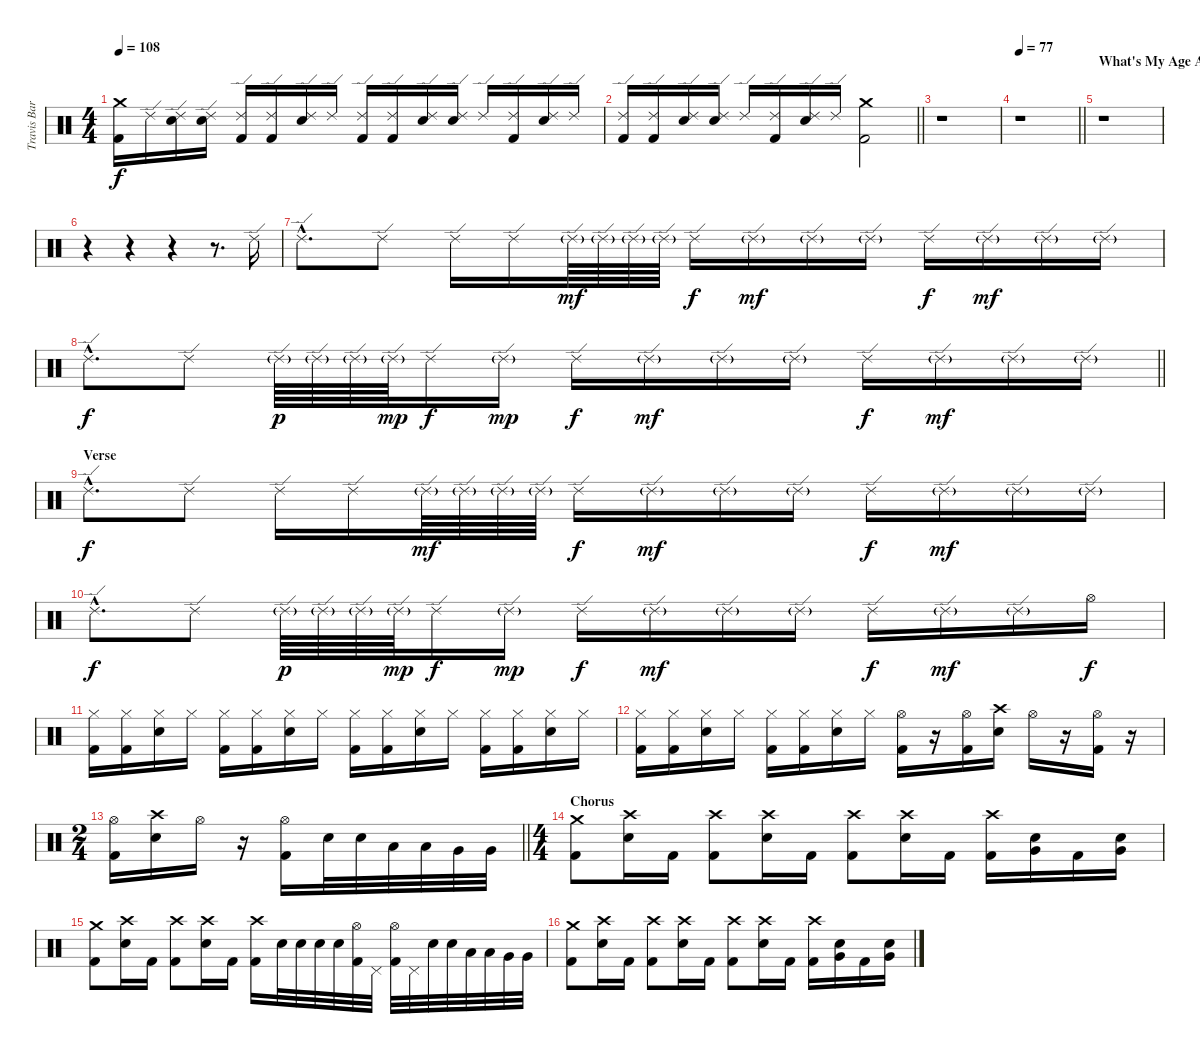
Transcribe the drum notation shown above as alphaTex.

\track ("Travis Barker" "Travis Bar") {instrument percussion}
\staff {score}
\articulation defaults
\ts (4 4)
\tempo 108
\clef neutral
\ks c
("Crash medium (hit)" "Kick (hit) 2").16{dy f} "Ride (edge) 2".16 ("Ride (edge) 2" "Electric Snare (hit)").16 ("Ride (edge) 2" "Electric Snare (hit)").16 ("Ride (edge) 2" "Kick (hit) 2").16 ("Ride (edge) 2" "Kick (hit) 2").16 ("Ride (edge) 2" "Electric Snare (hit)").16 "Ride (edge) 2".16 ("Ride (edge) 2" "Kick (hit) 2").16 ("Ride (edge) 2" "Kick (hit) 2").16 ("Ride (edge) 2" "Electric Snare (hit)").16 ("Ride (edge) 2" "Electric Snare (hit)").16 "Ride (edge) 2".16 ("Ride (edge) 2" "Kick (hit) 2").16 ("Ride (edge) 2" "Electric Snare (hit)").16 "Ride (edge) 2".16 |
\barLineRight lightlight
("Ride (edge) 2" "Kick (hit) 2").16 ("Ride (edge) 2" "Kick (hit) 2").16 ("Ride (edge) 2" "Electric Snare (hit)").16 ("Ride (edge) 2" "Electric Snare (hit)").16 "Ride (edge) 2".16 ("Ride (edge) 2" "Kick (hit) 2").16 ("Ride (edge) 2" "Electric Snare (hit)").16 "Ride (edge) 2".16 ("Crash medium (hit)" "Kick (hit) 2").2 |
r.1 |
\tempo 77
\barLineRight lightlight
r.1 |
\section ("" "What's My Age Again?")
r.1 |
r.4 r.4 r.4 r.8{d} "Ride (edge) 2".16 |
"Ride (edge) 2"{hac}.8{d} "Ride (edge) 2".8 "Ride (edge) 2".16 "Ride (edge) 2".16 "Ride (edge) 2"{g}.64{dy mf} "Ride (edge) 2"{g}.64 "Ride (edge) 2"{g}.64 "Ride (edge) 2"{g}.64 "Ride (edge) 2".16{dy f} "Ride (edge) 2"{g}.16{dy mf} "Ride (edge) 2"{g}.16 "Ride (edge) 2"{g}.16 "Ride (edge) 2".16{dy f} "Ride (edge) 2"{g}.16{dy mf} "Ride (edge) 2"{g}.16 "Ride (edge) 2"{g}.16 |
\barLineRight lightlight "Ride (edge) 2"{hac}.8{d dy f} "Ride (edge) 2".8 "Ride (edge) 2"{g}.64{dy p} "Ride (edge) 2"{g}.64 "Ride (edge) 2"{g}.64 "Ride (edge) 2"{g}.64{dy mp} "Ride (edge) 2".16{dy f} "Ride (edge) 2"{g}.16{dy mp} "Ride (edge) 2".16{dy f} "Ride (edge) 2"{g}.16{dy mf} "Ride (edge) 2"{g}.16 "Ride (edge) 2"{g}.16 "Ride (edge) 2".16{dy f} "Ride (edge) 2"{g}.16{dy mf} "Ride (edge) 2"{g}.16 "Ride (edge) 2"{g}.16
|
\section ("" "Verse")
"Ride (edge) 2"{hac}.8{d dy f} "Ride (edge) 2".8 "Ride (edge) 2".16 "Ride (edge) 2".16 "Ride (edge) 2"{g}.64{dy mf} "Ride (edge) 2"{g}.64 "Ride (edge) 2"{g}.64 "Ride (edge) 2"{g}.64 "Ride (edge) 2".16{dy f} "Ride (edge) 2"{g}.16{dy mf} "Ride (edge) 2"{g}.16 "Ride (edge) 2"{g}.16 "Ride (edge) 2".16{dy f} "Ride (edge) 2"{g}.16{dy mf} "Ride (edge) 2"{g}.16 "Ride (edge) 2"{g}.16 |
"Ride (edge) 2"{hac}.8{d dy f} "Ride (edge) 2".8 "Ride (edge) 2"{g}.64{dy p} "Ride (edge) 2"{g}.64 "Ride (edge) 2"{g}.64 "Ride (edge) 2"{g}.64{dy mp} "Ride (edge) 2".16{dy f} "Ride (edge) 2"{g}.16{dy mp} "Ride (edge) 2".16{dy f} "Ride (edge) 2"{g}.16{dy mf} "Ride (edge) 2"{g}.16 "Ride (edge) 2"{g}.16 "Ride (edge) 2".16{dy f} "Ride (edge) 2"{g}.16{dy mf} "Ride (edge) 2"{g}.16 "Hi-Hat (open)".16{dy f} |
("Hi-Hat (closed)" "Kick (hit) 2").16 ("Hi-Hat (closed)" "Kick (hit) 2").16 ("Hi-Hat (closed)" "Electric Snare (hit)").16 "Hi-Hat (closed)".16 ("Hi-Hat (closed)" "Kick (hit) 2").16 ("Hi-Hat (closed)" "Kick (hit) 2").16 ("Hi-Hat (closed)" "Electric Snare (hit)").16 "Hi-Hat (closed)".16 ("Hi-Hat (closed)" "Kick (hit) 2").16 ("Hi-Hat (closed)" "Kick (hit) 2").16 ("Hi-Hat (closed)" "Electric Snare (hit)").16 "Hi-Hat (closed)".16 ("Hi-Hat (closed)" "Kick (hit) 2").16 ("Hi-Hat (closed)" "Kick (hit) 2").16 ("Hi-Hat (closed)" "Electric Snare (hit)").16 "Hi-Hat (closed)".16 |
("Hi-Hat (closed)" "Kick (hit) 2").16 ("Hi-Hat (closed)" "Kick (hit) 2").16 ("Hi-Hat (closed)" "Electric Snare (hit)").16 "Hi-Hat (closed)".16 ("Hi-Hat (closed)" "Kick (hit) 2").16 ("Hi-Hat (closed)" "Kick (hit) 2").16 ("Hi-Hat (closed)" "Electric Snare (hit)").16 "Hi-Hat (closed)".16 ("Hi-Hat (open)" "Kick (hit) 2").16 r.16 ("Hi-Hat (open)" "Kick (hit) 2").16 ("Crash high (hit)" "Electric Snare (hit)").16 "Hi-Hat (open)".16 r.16 ("Hi-Hat (open)" "Kick (hit) 2").16 r.16 |
\ts (2 4)
\barLineRight lightlight
("Hi-Hat (open)" "Kick (hit) 2").16 ("Crash high (hit)" "Electric Snare (hit)").16 "Hi-Hat (open)".16 r.16 ("Hi-Hat (open)" "Kick (hit) 2").16 "Electric Snare (hit)".32 "Electric Snare (hit)".32 "Low Tom (hit)".32 "Low Tom (hit)".32 "Very Low Tom (hit)".32 "Very Low Tom (hit)".32 |
\ts (4 4)
\section ("" "Chorus")
("Crash medium (hit)" "Kick (hit) 2").8 ("Crash high (hit)" "Electric Snare (hit)").16 "Kick (hit) 2".16 ("Crash high (hit)" "Kick (hit) 2").8 ("Crash high (hit)" "Electric Snare (hit)").16 "Kick (hit) 2".16 ("Crash high (hit)" "Kick (hit) 2").8 ("Crash high (hit)" "Electric Snare (hit)").16 "Kick (hit) 2".16 ("Crash high (hit)" "Kick (hit) 2").16 ("Electric Snare (hit)" "Very Low Tom (hit)").16 "Kick (hit) 2".16 ("Electric Snare (hit)" "Very Low Tom (hit)").16 |
("Crash medium (hit)" "Kick (hit) 2").8 ("Crash high (hit)" "Electric Snare (hit)").16 "Kick (hit) 2".16 ("Crash high (hit)" "Kick (hit) 2").8 ("Crash high (hit)" "Electric Snare (hit)").16 "Kick (hit) 2".16 ("Crash high (hit)" "Kick (hit) 2").16 "Electric Snare (hit)".32 "Electric Snare (hit)".32 "Electric Snare (hit)".32 "Electric Snare (hit)".32 ("Hi-Hat (open)" "Kick (hit) 2").32 "Pedal Hi-Hat (hit)".32 ("Hi-Hat (open)" "Kick (hit) 2").32 "Pedal Hi-Hat (hit)".32 "Electric Snare (hit)".32 "Electric Snare (hit)".32 "Low Tom (hit)".32 "Low Tom (hit)".32 "Very Low Tom (hit)".32 "Very Low Tom (hit)".32 |
("Crash medium (hit)" "Kick (hit) 2").8 ("Crash high (hit)" "Electric Snare (hit)").16 "Kick (hit) 2".16 ("Crash high (hit)" "Kick (hit) 2").8 ("Crash high (hit)" "Electric Snare (hit)").16 "Kick (hit) 2".16 ("Crash high (hit)" "Kick (hit) 2").8 ("Crash high (hit)" "Electric Snare (hit)").16 "Kick (hit) 2".16 ("Crash high (hit)" "Kick (hit) 2").16 ("Electric Snare (hit)" "Very Low Tom (hit)").16 "Kick (hit) 2".16 ("Electric Snare (hit)" "Very Low Tom (hit)").16
